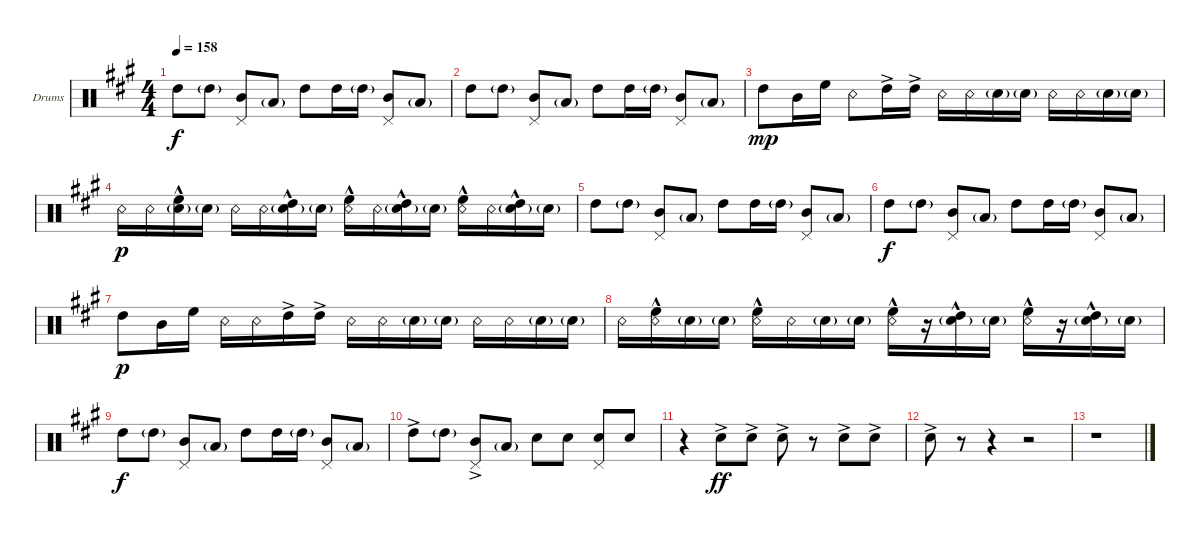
\defaultSystemsLayout 4
\bracketExtendMode groupsimilarinstruments
\firstSystemTrackNameOrientation horizontal
\otherSystemsTrackNameOrientation horizontal
\track ("Drums" "Drums") {instrument percussion}
\staff {score}
\articulation defaults
\ts (4 4)
\tempo 158
\clef neutral
\scale
0.333333
\ks a "High Tom (hit)".8{dy f} "High Tom (hit)"{g}.8
("Mid Tom (hit)" "Pedal Hi-Hat (hit)").8 "Low Tom (hit)"{g}.8 "High Tom (hit)".8 "High Tom (hit)".16 "High Tom (hit)"{g}.16 ("Mid Tom (hit)" "Pedal Hi-Hat (hit)").8 "Low Tom (hit)"{g}.8 |
\scale
0.333333 "High Tom (hit)".8 "High Tom (hit)"{g}.8 ("Mid Tom (hit)" "Pedal Hi-Hat (hit)").8 "Low Tom (hit)"{g}.8 "High Tom (hit)".8 "High Tom (hit)".16 "High Tom (hit)"{g}.16 ("Mid Tom (hit)" "Pedal Hi-Hat (hit)").8 "Low Tom (hit)"{g}.8 |
\scale
0.333333 "High Tom (hit)".8{dy mp} "Mid Tom (hit)".16 "High Floor Tom (hit)".16 "Snare (rim shot)".8 "High Tom (hit)"{ac}.16 "High Tom (hit)"{ac}.16 "Snare (rim shot)".16 "Snare (rim shot)".16 "Snare (hit) 2"{g}.16 "Snare (hit) 2"{g}.16 "Snare (rim shot)".16 "Snare (rim shot)".16 "Snare (hit) 2"{g}.16 "Snare (hit) 2"{g}.16 |
\scale
0.333333 "Snare (rim shot)".16{dy p} "Snare (rim shot)".16 ("Snare (hit) 2"{g} "High Floor Tom (hit)"{hac}).16 "Snare (hit) 2"{g}.16 "Snare (rim shot)".16 "Snare (rim shot)".16 ("Snare (hit) 2"{g} "High Tom (hit)"{hac}).16 "Snare (hit) 2"{g}.16 ("Snare (rim shot)" "High Floor Tom (hit)"{hac}).16 "Snare (rim shot)".16 ("Snare (hit) 2"{g} "High Tom (hit)"{hac}).16 "Snare (hit) 2"{g}.16 ("Snare (rim shot)" "High Floor Tom (hit)"{hac}).16 "Snare (rim shot)".16 ("Snare (hit) 2"{g} "High Tom (hit)"{hac}).16 "Snare (hit) 2"{g}.16 |
\scale
0.333333 "High Tom (hit)".8 "High Tom (hit)"{g}.8 ("Mid Tom (hit)" "Pedal Hi-Hat (hit)").8 "Low Tom (hit)"{g}.8 "High Tom (hit)".8 "High Tom (hit)".16 "High Tom (hit)"{g}.16 ("Mid Tom (hit)" "Pedal Hi-Hat (hit)").8 "Low Tom (hit)"{g}.8 |
\scale
0.333333 "High Tom (hit)".8{dy f} "High Tom (hit)"{g}.8 ("Mid Tom (hit)" "Pedal Hi-Hat (hit)").8 "Low Tom (hit)"{g}.8 "High Tom (hit)".8 "High Tom (hit)".16 "High Tom (hit)"{g}.16 ("Mid Tom (hit)" "Pedal Hi-Hat (hit)").8 "Low Tom (hit)"{g}.8 |
\scale
0.333333 "High Tom (hit)".8{dy p} "Mid Tom (hit)".16 "High Floor Tom (hit)".16 "Snare (rim shot)".16 "Snare (rim shot)".16 "High Tom (hit)"{ac}.16 "High Tom (hit)"{ac}.16 "Snare (rim shot)".16 "Snare (rim shot)".16 "Snare (hit) 2"{g}.16 "Snare (hit) 2"{g}.16 "Snare (rim shot)".16 "Snare (rim shot)".16 "Snare (hit) 2"{g}.16 "Snare (hit) 2"{g}.16 |
\scale
0.333333 "Snare (rim shot)".16 ("Snare (rim shot)" "High Floor Tom (hit)"{hac}).16 "Snare (hit) 2"{g}.16 "Snare (hit) 2"{g}.16 ("Snare (rim shot)" "High Floor Tom (hit)"{hac}).16 "Snare (rim shot)".16 "Snare (hit) 2"{g}.16 "Snare (hit) 2"{g}.16 ("Snare (rim shot)" "High Floor Tom (hit)"{hac}).16 r.16 ("Snare (hit) 2"{g} "High Tom (hit)"{hac}).16 "Snare (hit) 2"{g}.16 ("Snare (rim shot)" "High Floor Tom (hit)"{hac}).16 r.16 ("Snare (hit) 2"{g} "High Tom (hit)"{hac}).16 "Snare (hit) 2"{g}.16 |
\scale
0.333333 "High Tom (hit)".8{dy f} "High Tom (hit)"{g}.8 ("Mid Tom (hit)" "Pedal Hi-Hat (hit)").8 "Low Tom (hit)"{g}.8 "High Tom (hit)".8 "High Tom (hit)".16 "High Tom (hit)"{g}.16 ("Mid Tom (hit)" "Pedal Hi-Hat (hit)").8 "Low Tom (hit)"{g}.8 |
\scale
0.333333 "High Tom (hit)"{ac}.8 "High Tom (hit)"{g}.8 ("Mid Tom (hit)"{ac} "Pedal Hi-Hat (hit)").8 "Low Tom (hit)"{g}.8 "Snare (hit) 2".8 "Snare (hit) 2".8 ("Pedal Hi-Hat (hit)" "Snare (hit) 2").8 "Snare (hit) 2".8 |
r.4 "Snare (hit) 2"{ac}.8{dy ff} "Snare (hit) 2"{ac}.8 "Snare (hit) 2"{ac}.8 r.8 "Snare (hit) 2"{ac}.8 "Snare (hit) 2"{ac}.8 |
"Snare (hit) 2"{ac}.8 r.8 r.4 r.2 |
r.1
